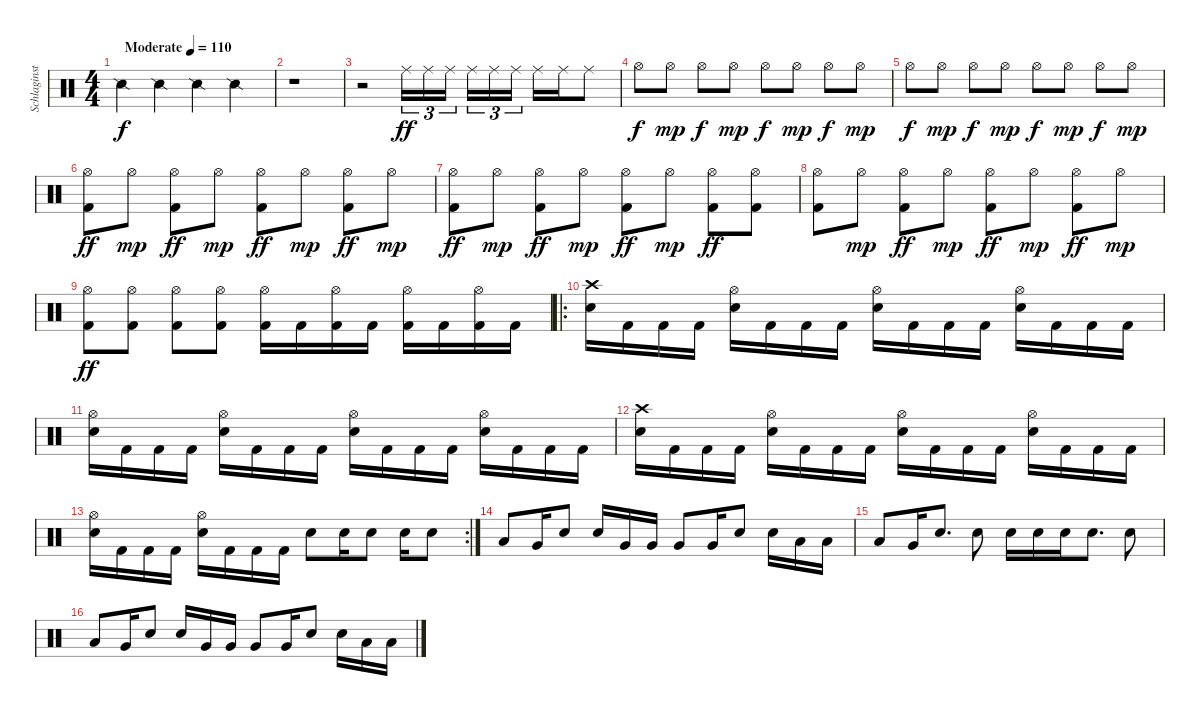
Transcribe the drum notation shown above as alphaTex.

\track ("Schlaginstrumente - Auswahl" "Schlaginst") {instrument percussion}
\staff {score}
\articulation defaults
\ts (4 4)
\tempo (110 "Moderate")
\clef neutral
\ks c "Snare (side stick) 2".4{dy f} "Snare (side stick) 2".4 "Snare (side stick) 2".4 "Snare (side stick) 2".4
|
r.1 |
r.2 "Ride (middle)".16{tu (3 2) dy ff} "Ride (middle)".16{tu (3 2)} "Ride (middle)".16{tu (3 2) beam splitsecondary} "Ride (middle)".16{tu (3 2)} "Ride (middle)".16{tu (3 2)} "Ride (middle)".16{tu (3 2)} "Ride (middle)".16 "Ride (middle)".16 "Ride (middle)".8 |
"Hi-Hat (open)".8{dy f} "Hi-Hat (open)".8{dy mp} "Hi-Hat (open)".8{dy f} "Hi-Hat (open)".8{dy mp} "Hi-Hat (open)".8{dy f} "Hi-Hat (open)".8{dy mp} "Hi-Hat (open)".8{dy f} "Hi-Hat (open)".8{dy mp} |
"Hi-Hat (open)".8{dy f} "Hi-Hat (open)".8{dy mp} "Hi-Hat (open)".8{dy f} "Hi-Hat (open)".8{dy mp} "Hi-Hat (open)".8{dy f} "Hi-Hat (open)".8{dy mp} "Hi-Hat (open)".8{dy f} "Hi-Hat (open)".8{dy mp} |
("Hi-Hat (open)" "Kick (hit) 2").8{dy ff} "Hi-Hat (open)".8{dy mp} ("Hi-Hat (open)" "Kick (hit) 2").8{dy ff} "Hi-Hat (open)".8{dy mp} ("Hi-Hat (open)" "Kick (hit) 2").8{dy ff} "Hi-Hat (open)".8{dy mp} ("Hi-Hat (open)" "Kick (hit) 2").8{dy ff} "Hi-Hat (open)".8{dy mp} |
("Hi-Hat (open)" "Kick (hit) 2").8{dy ff} "Hi-Hat (open)".8{dy mp} ("Hi-Hat (open)" "Kick (hit) 2").8{dy ff} "Hi-Hat (open)".8{dy mp} ("Hi-Hat (open)" "Kick (hit) 2").8{dy ff} "Hi-Hat (open)".8{dy mp} ("Hi-Hat (open)" "Kick (hit) 2").8{dy ff} ("Hi-Hat (open)" "Kick (hit) 2").8 |
("Hi-Hat (open)" "Kick (hit) 2").8 "Hi-Hat (open)".8{dy mp} ("Hi-Hat (open)" "Kick (hit) 2").8{dy ff} "Hi-Hat (open)".8{dy mp} ("Hi-Hat (open)" "Kick (hit) 2").8{dy ff} "Hi-Hat (open)".8{dy mp} ("Hi-Hat (open)" "Kick (hit) 2").8{dy ff} "Hi-Hat (open)".8{dy mp} |
("Hi-Hat (open)" "Kick (hit) 2").8{dy ff} ("Hi-Hat (open)" "Kick (hit) 2").8 ("Hi-Hat (open)" "Kick (hit) 2").8 ("Hi-Hat (open)" "Kick (hit) 2").8 ("Hi-Hat (open)" "Kick (hit) 2").16 "Kick (hit) 2".16 ("Hi-Hat (open)" "Kick (hit) 2").16 "Kick (hit) 2".16 ("Hi-Hat (open)" "Kick (hit) 2").16 "Kick (hit) 2".16 ("Hi-Hat (open)" "Kick (hit) 2").16 "Kick (hit) 2".16 |
\ro
("Crash high (hit)" "Electric Snare (hit)").16 "Kick (hit) 2".16 "Kick (hit) 2".16 "Kick (hit) 2".16 ("Hi-Hat (open)" "Electric Snare (hit)").16 "Kick (hit) 2".16 "Kick (hit) 2".16 "Kick (hit) 2".16 ("Hi-Hat (open)" "Electric Snare (hit)").16 "Kick (hit) 2".16 "Kick (hit) 2".16 "Kick (hit) 2".16 ("Hi-Hat (open)" "Electric Snare (hit)").16 "Kick (hit) 2".16 "Kick (hit) 2".16 "Kick (hit) 2".16 |
("Hi-Hat (open)" "Electric Snare (hit)").16 "Kick (hit) 2".16 "Kick (hit) 2".16 "Kick (hit) 2".16 ("Hi-Hat (open)" "Electric Snare (hit)").16 "Kick (hit) 2".16 "Kick (hit) 2".16 "Kick (hit) 2".16 ("Hi-Hat (open)" "Electric Snare (hit)").16 "Kick (hit) 2".16 "Kick (hit) 2".16 "Kick (hit) 2".16 ("Hi-Hat (open)" "Electric Snare (hit)").16 "Kick (hit) 2".16 "Kick (hit) 2".16 "Kick (hit) 2".16 |
("Crash high (hit)" "Electric Snare (hit)").16 "Kick (hit) 2".16 "Kick (hit) 2".16 "Kick (hit) 2".16 ("Hi-Hat (open)" "Electric Snare (hit)").16 "Kick (hit) 2".16 "Kick (hit) 2".16 "Kick (hit) 2".16 ("Hi-Hat (open)" "Electric Snare (hit)").16 "Kick (hit) 2".16 "Kick (hit) 2".16 "Kick (hit) 2".16 ("Hi-Hat (open)" "Electric Snare (hit)").16 "Kick (hit) 2".16 "Kick (hit) 2".16 "Kick (hit) 2".16 |
\rc 2
("Hi-Hat (open)" "Electric Snare (hit)").16 "Kick (hit) 2".16 "Kick (hit) 2".16 "Kick (hit) 2".16 ("Hi-Hat (open)" "Electric Snare (hit)").16 "Kick (hit) 2".16 "Kick (hit) 2".16 "Kick (hit) 2".16 "Electric Snare (hit)".8 "Electric Snare (hit)".16 "Electric Snare (hit)".8 "Electric Snare (hit)".16 "Electric Snare (hit)".8 |
"Low Tom (hit)".8 "Very Low Tom (hit)".16 "Electric Snare (hit)".8 "Electric Snare (hit)".16 "Very Low Tom (hit)".16 "Very Low Tom (hit)".16 "Very Low Tom (hit)".8 "Very Low Tom (hit)".16 "Electric Snare (hit)".8 "Electric Snare (hit)".16 "Low Floor Tom (hit)".16 "Low Floor Tom (hit)".16 |
"Low Floor Tom (hit)".8 "Very Low Tom (hit)".16 "Electric Snare (hit)".8{d} "Electric Snare (hit)".8 "Electric Snare (hit)".16 "Electric Snare (hit)".16 "Electric Snare (hit)".16 "Electric Snare (hit)".8{d} "Electric Snare (hit)".8 |
"Low Tom (hit)".8 "Very Low Tom (hit)".16 "Electric Snare (hit)".8 "Electric Snare (hit)".16 "Very Low Tom (hit)".16 "Very Low Tom (hit)".16 "Very Low Tom (hit)".8 "Very Low Tom (hit)".16 "Electric Snare (hit)".8 "Electric Snare (hit)".16 "Low Floor Tom (hit)".16 "Low Floor Tom (hit)".16
